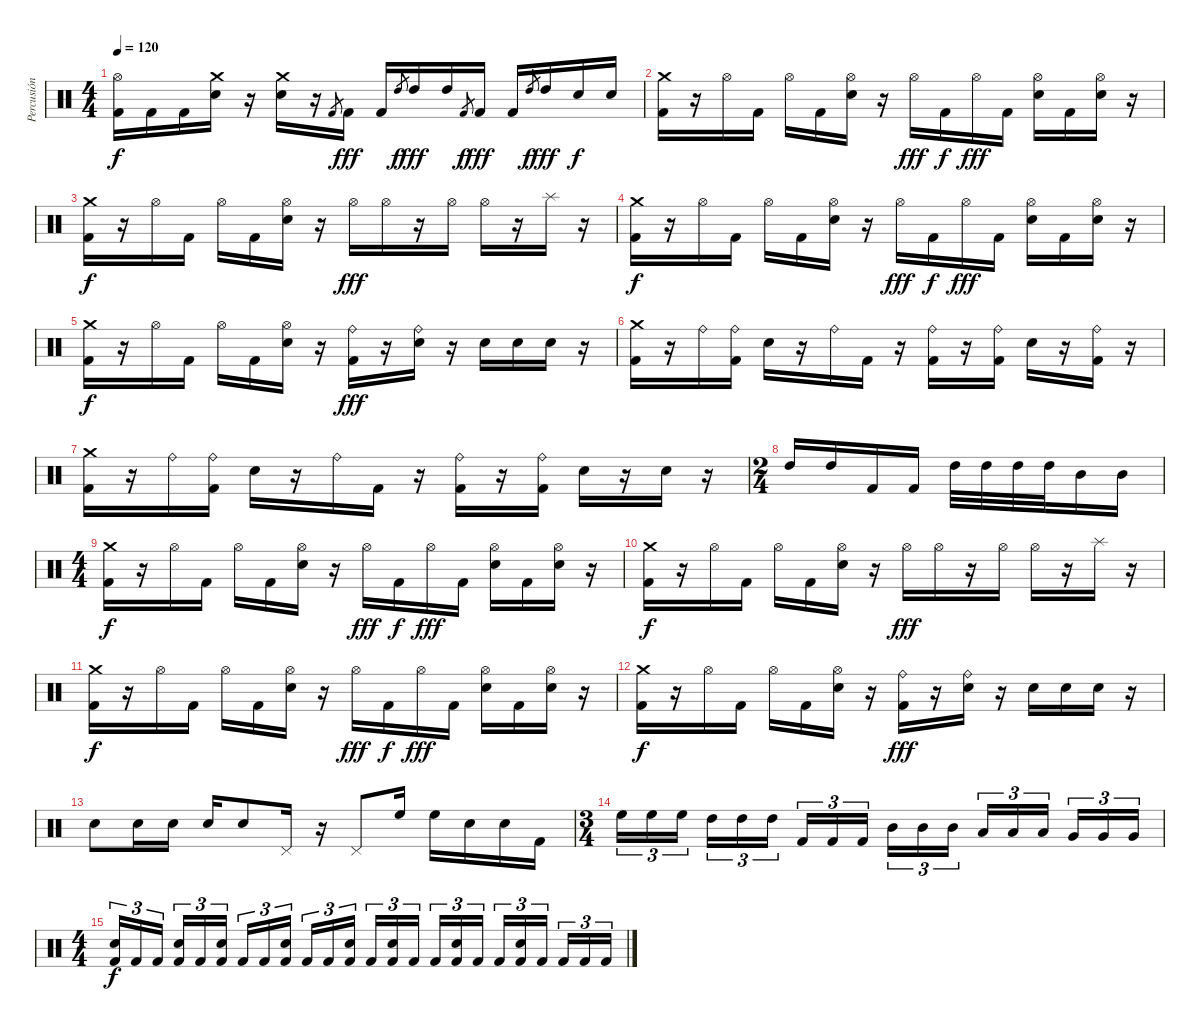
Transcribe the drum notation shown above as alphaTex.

\track ("Percusión" "Percusión") {instrument percussion}
\staff {score}
\articulation defaults
\ts (4 4)
\tempo 120
\clef neutral
\ks c
("Hi-Hat (open)" "Kick (hit) 2").16{dy f} "Kick (hit) 2".16 "Kick (hit) 2".16 ("Crash medium (hit)" "Electric Snare (hit)").16 r.16 ("Crash medium (hit)" "Electric Snare (hit)").16 r.16 "Kick (hit) 2".8{gr} "Kick (hit) 2".16{dy fff} "Kick (hit) 2".16 "High Tom (hit)".8{gr dy f} "High Tom (hit)".16{dy fff} "High Tom (hit)".16 "Kick (hit) 2".8{gr dy f} "Kick (hit) 2".16{dy fff} "Kick (hit) 2".16 "High Tom (hit)".8{gr dy f} "High Tom (hit)".16{dy fff} "Electric Snare (hit)".16{dy f} "Electric Snare (hit)".16 |
("Crash medium (hit)" "Kick (hit) 2").16 r.16 "Hi-Hat (open)".16 "Kick (hit) 2".16 "Hi-Hat (open)".16 "Kick (hit) 2".16 ("Hi-Hat (open)" "Electric Snare (hit)").16 r.16 "Hi-Hat (open)".16{dy fff} "Kick (hit) 2".16{dy f} "Hi-Hat (open)".16{dy fff} "Kick (hit) 2".16 ("Hi-Hat (open)" "Electric Snare (hit)").16 "Kick (hit) 2".16 ("Hi-Hat (open)" "Electric Snare (hit)").16 r.16 |
("Crash medium (hit)" "Kick (hit) 2").16{dy f} r.16 "Hi-Hat (open)".16 "Kick (hit) 2".16 "Hi-Hat (open)".16 "Kick (hit) 2".16 ("Hi-Hat (open)" "Electric Snare (hit)").16 r.16 "Hi-Hat (open)".16{dy fff} "Hi-Hat (open)".16 r.16 "Hi-Hat (open)".16 "Hi-Hat (open)".16 r.16 "Splash (hit)".16 r.16 |
("Crash medium (hit)" "Kick (hit) 2").16{dy f} r.16 "Hi-Hat (open)".16 "Kick (hit) 2".16 "Hi-Hat (open)".16 "Kick (hit) 2".16 ("Hi-Hat (open)" "Electric Snare (hit)").16 r.16 "Hi-Hat (open)".16{dy fff} "Kick (hit) 2".16{dy f} "Hi-Hat (open)".16{dy fff} "Kick (hit) 2".16 ("Hi-Hat (open)" "Electric Snare (hit)").16 "Kick (hit) 2".16 ("Hi-Hat (open)" "Electric Snare (hit)").16 r.16 |
("Crash medium (hit)" "Kick (hit) 2").16{dy f} r.16 "Hi-Hat (open)".16 "Kick (hit) 2".16 "Hi-Hat (open)".16 "Kick (hit) 2".16 ("Hi-Hat (open)" "Electric Snare (hit)").16 r.16 ("Ride (bell)" "Kick (hit) 2").16{dy fff} r.16 ("Ride (bell)" "Electric Snare (hit)").16 r.16 "Electric Snare (hit)".16 "Electric Snare (hit)".16 "Electric Snare (hit)".16 r.16 |
("Crash medium (hit)" "Kick (hit) 2").16 r.16 "Ride (bell)".16 ("Ride (bell)" "Kick (hit) 2").16 "Electric Snare (hit)".16 r.16 "Ride (bell)".16 "Kick (hit) 2".16 r.16 ("Ride (bell)" "Kick (hit) 2").16 r.16 ("Ride (bell)" "Kick (hit) 2").16 "Electric Snare (hit)".16 r.16 ("Ride (bell)" "Kick (hit) 2").16 r.16 |
("Crash medium (hit)" "Kick (hit) 2").16 r.16 "Ride (bell)".16 ("Ride (bell)" "Kick (hit) 2").16 "Electric Snare (hit)".16 r.16 "Ride (bell)".16 "Kick (hit) 2".16 r.16 ("Ride (bell)" "Kick (hit) 2").16 r.16 ("Ride (bell)" "Kick (hit) 2").16 "Electric Snare (hit)".16 r.16 "Electric Snare (hit)".16 r.16 |
\ts (2 4)
"High Tom (hit)".16 "High Tom (hit)".16 "Kick (hit) 2".16 "Kick (hit) 2".16 "High Tom (hit)".32 "High Tom (hit)".32 "High Tom (hit)".32 "High Tom (hit)".32 "Mid Tom (hit)".16 "Mid Tom (hit)".16 |
\ts (4 4)
("Crash medium (hit)" "Kick (hit) 2").16{dy f} r.16 "Hi-Hat (open)".16 "Kick (hit) 2".16 "Hi-Hat (open)".16 "Kick (hit) 2".16 ("Hi-Hat (open)" "Electric Snare (hit)").16 r.16 "Hi-Hat (open)".16{dy fff} "Kick (hit) 2".16{dy f} "Hi-Hat (open)".16{dy fff} "Kick (hit) 2".16 ("Hi-Hat (open)" "Electric Snare (hit)").16 "Kick (hit) 2".16 ("Hi-Hat (open)" "Electric Snare (hit)").16 r.16 |
("Crash medium (hit)" "Kick (hit) 2").16{dy f} r.16 "Hi-Hat (open)".16 "Kick (hit) 2".16 "Hi-Hat (open)".16 "Kick (hit) 2".16 ("Hi-Hat (open)" "Electric Snare (hit)").16 r.16 "Hi-Hat (open)".16{dy fff} "Hi-Hat (open)".16 r.16 "Hi-Hat (open)".16 "Hi-Hat (open)".16 r.16 "Splash (hit)".16 r.16 |
("Crash medium (hit)" "Kick (hit) 2").16{dy f} r.16 "Hi-Hat (open)".16 "Kick (hit) 2".16 "Hi-Hat (open)".16 "Kick (hit) 2".16 ("Hi-Hat (open)" "Electric Snare (hit)").16 r.16 "Hi-Hat (open)".16{dy fff} "Kick (hit) 2".16{dy f} "Hi-Hat (open)".16{dy fff} "Kick (hit) 2".16 ("Hi-Hat (open)" "Electric Snare (hit)").16 "Kick (hit) 2".16 ("Hi-Hat (open)" "Electric Snare (hit)").16 r.16 |
("Crash medium (hit)" "Kick (hit) 2").16{dy f} r.16 "Hi-Hat (open)".16 "Kick (hit) 2".16 "Hi-Hat (open)".16 "Kick (hit) 2".16 ("Hi-Hat (open)" "Electric Snare (hit)").16 r.16 ("Ride (bell)" "Kick (hit) 2").16{dy fff} r.16 ("Ride (bell)" "Electric Snare (hit)").16 r.16 "Electric Snare (hit)".16 "Electric Snare (hit)".16 "Electric Snare (hit)".16 r.16 |
"Electric Snare (hit)".8 "Electric Snare (hit)".16 "Electric Snare (hit)".16 "Electric Snare (hit)".16 "Electric Snare (hit)".8 "Pedal Hi-Hat (hit)".16 r.16 "Pedal Hi-Hat (hit)".8 "High Floor Tom (hit)".16 "High Floor Tom (hit)".16 "Electric Snare (hit)".16 "Electric Snare (hit)".16 "Kick (hit) 2".16 |
\ts (3 4)
"High Floor Tom (hit)".16{tu (3 2)} "High Floor Tom (hit)".16{tu (3 2)} "High Floor Tom (hit)".16{tu (3 2) beam splitsecondary} "High Tom (hit)".16{tu (3 2)} "High Tom (hit)".16{tu (3 2)} "High Tom (hit)".16{tu (3 2)} "Kick (hit) 2".16{tu (3 2)} "Kick (hit) 2".16{tu (3 2)} "Kick (hit) 2".16{tu (3 2) beam splitsecondary} "Mid Tom (hit)".16{tu (3 2)} "Mid Tom (hit)".16{tu (3 2)} "Mid Tom (hit)".16{tu (3 2)} "Low Tom (hit)".16{tu (3 2)} "Low Tom (hit)".16{tu (3 2)} "Low Tom (hit)".16{tu (3 2) beam splitsecondary} "Very Low Tom (hit)".16{tu (3 2)} "Very Low Tom (hit)".16{tu (3 2)} "Very Low Tom (hit)".16{tu (3 2)} |
\ts (4 4)
("Electric Snare (hit)" "Kick (hit) 2").16{tu (3 2) dy f} "Kick (hit) 2".16{tu (3 2)} "Kick (hit) 2".16{tu (3 2) beam splitsecondary} ("Electric Snare (hit)" "Kick (hit) 2").16{tu (3 2)} "Kick (hit) 2".16{tu (3 2)} ("Electric Snare (hit)" "Kick (hit) 2").16{tu (3 2)} "Kick (hit) 2".16{tu (3 2)} "Kick (hit) 2".16{tu (3 2)} ("Electric Snare (hit)" "Kick (hit) 2").16{tu (3 2) beam splitsecondary} "Kick (hit) 2".16{tu (3 2)} "Kick (hit) 2".16{tu (3 2)} ("Electric Snare (hit)" "Kick (hit) 2").16{tu (3 2)} "Kick (hit) 2".16{tu (3 2)} ("Electric Snare (hit)" "Kick (hit) 2").16{tu (3 2)} "Kick (hit) 2".16{tu (3 2) beam splitsecondary} "Kick (hit) 2".16{tu (3 2)} ("Electric Snare (hit)" "Kick (hit) 2").16{tu (3 2)} "Kick (hit) 2".16{tu (3 2)} "Kick (hit) 2".16{tu (3 2)} ("Electric Snare (hit)" "Kick (hit) 2").16{tu (3 2)} "Kick (hit) 2".16{tu (3 2) beam splitsecondary} "Kick (hit) 2".16{tu (3 2)} "Kick (hit) 2".16{tu (3 2)} "Kick (hit) 2".16{tu (3 2)}
